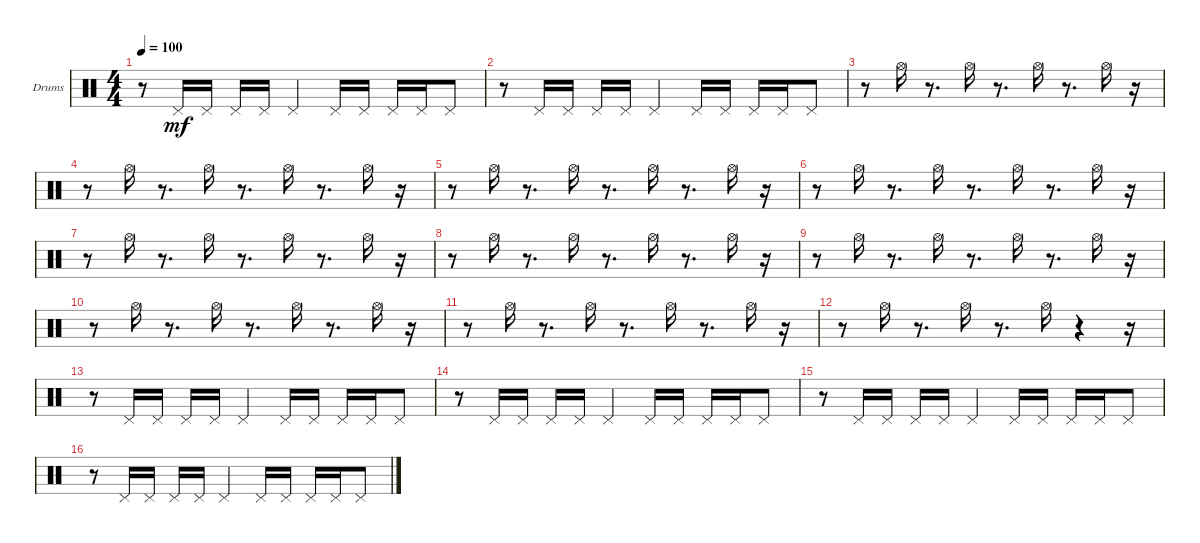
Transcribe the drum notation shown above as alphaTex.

\bracketExtendMode groupsimilarinstruments
\firstSystemTrackNameOrientation horizontal
\otherSystemsTrackNameOrientation horizontal
\track ("Treble Percussion" "Drums") {instrument percussion}
\staff {score}
\articulation defaults
\ts (4 4)
\tempo 100
\clef neutral
\ks c
r.8{dy mf} "Pedal Hi-Hat (hit)".16 "Pedal Hi-Hat (hit)".16 "Pedal Hi-Hat (hit)".16 "Pedal Hi-Hat (hit)".16 "Pedal Hi-Hat (hit)".4 "Pedal Hi-Hat (hit)".16 "Pedal Hi-Hat (hit)".16 "Pedal Hi-Hat (hit)".16 "Pedal Hi-Hat (hit)".16 "Pedal Hi-Hat (hit)".8 |
r.8 "Pedal Hi-Hat (hit)".16 "Pedal Hi-Hat (hit)".16 "Pedal Hi-Hat (hit)".16 "Pedal Hi-Hat (hit)".16 "Pedal Hi-Hat (hit)".4 "Pedal Hi-Hat (hit)".16 "Pedal Hi-Hat (hit)".16 "Pedal Hi-Hat (hit)".16 "Pedal Hi-Hat (hit)".16 "Pedal Hi-Hat (hit)".8 |
r.8 "Hi-Hat (open)".16 r.8{d} "Hi-Hat (open)".16 r.8{d} "Hi-Hat (open)".16 r.8{d} "Hi-Hat (open)".16 r.16 |
r.8 "Hi-Hat (open)".16 r.8{d} "Hi-Hat (open)".16 r.8{d} "Hi-Hat (open)".16 r.8{d} "Hi-Hat (open)".16 r.16 |
r.8 "Hi-Hat (open)".16 r.8{d} "Hi-Hat (open)".16 r.8{d} "Hi-Hat (open)".16 r.8{d} "Hi-Hat (open)".16 r.16 |
r.8 "Hi-Hat (open)".16 r.8{d} "Hi-Hat (open)".16 r.8{d} "Hi-Hat (open)".16 r.8{d} "Hi-Hat (open)".16 r.16 |
r.8 "Hi-Hat (open)".16 r.8{d} "Hi-Hat (open)".16 r.8{d} "Hi-Hat (open)".16 r.8{d} "Hi-Hat (open)".16 r.16 |
r.8 "Hi-Hat (open)".16 r.8{d} "Hi-Hat (open)".16 r.8{d} "Hi-Hat (open)".16 r.8{d} "Hi-Hat (open)".16 r.16 |
r.8 "Hi-Hat (open)".16 r.8{d} "Hi-Hat (open)".16 r.8{d} "Hi-Hat (open)".16 r.8{d} "Hi-Hat (open)".16 r.16 |
r.8 "Hi-Hat (open)".16 r.8{d} "Hi-Hat (open)".16 r.8{d} "Hi-Hat (open)".16 r.8{d} "Hi-Hat (open)".16 r.16 |
r.8 "Hi-Hat (open)".16 r.8{d} "Hi-Hat (open)".16 r.8{d} "Hi-Hat (open)".16 r.8{d} "Hi-Hat (open)".16 r.16 |
r.8 "Hi-Hat (open)".16 r.8{d} "Hi-Hat (open)".16 r.8{d} "Hi-Hat (open)".16 r.4 r.16 |
r.8 "Pedal Hi-Hat (hit)".16 "Pedal Hi-Hat (hit)".16 "Pedal Hi-Hat (hit)".16 "Pedal Hi-Hat (hit)".16 "Pedal Hi-Hat (hit)".4 "Pedal Hi-Hat (hit)".16 "Pedal Hi-Hat (hit)".16 "Pedal Hi-Hat (hit)".16 "Pedal Hi-Hat (hit)".16 "Pedal Hi-Hat (hit)".8 |
r.8 "Pedal Hi-Hat (hit)".16 "Pedal Hi-Hat (hit)".16 "Pedal Hi-Hat (hit)".16 "Pedal Hi-Hat (hit)".16 "Pedal Hi-Hat (hit)".4 "Pedal Hi-Hat (hit)".16 "Pedal Hi-Hat (hit)".16 "Pedal Hi-Hat (hit)".16 "Pedal Hi-Hat (hit)".16 "Pedal Hi-Hat (hit)".8 |
r.8 "Pedal Hi-Hat (hit)".16 "Pedal Hi-Hat (hit)".16 "Pedal Hi-Hat (hit)".16 "Pedal Hi-Hat (hit)".16 "Pedal Hi-Hat (hit)".4 "Pedal Hi-Hat (hit)".16 "Pedal Hi-Hat (hit)".16 "Pedal Hi-Hat (hit)".16 "Pedal Hi-Hat (hit)".16 "Pedal Hi-Hat (hit)".8 |
r.8 "Pedal Hi-Hat (hit)".16 "Pedal Hi-Hat (hit)".16 "Pedal Hi-Hat (hit)".16 "Pedal Hi-Hat (hit)".16 "Pedal Hi-Hat (hit)".4 "Pedal Hi-Hat (hit)".16 "Pedal Hi-Hat (hit)".16 "Pedal Hi-Hat (hit)".16 "Pedal Hi-Hat (hit)".16 "Pedal Hi-Hat (hit)".8
